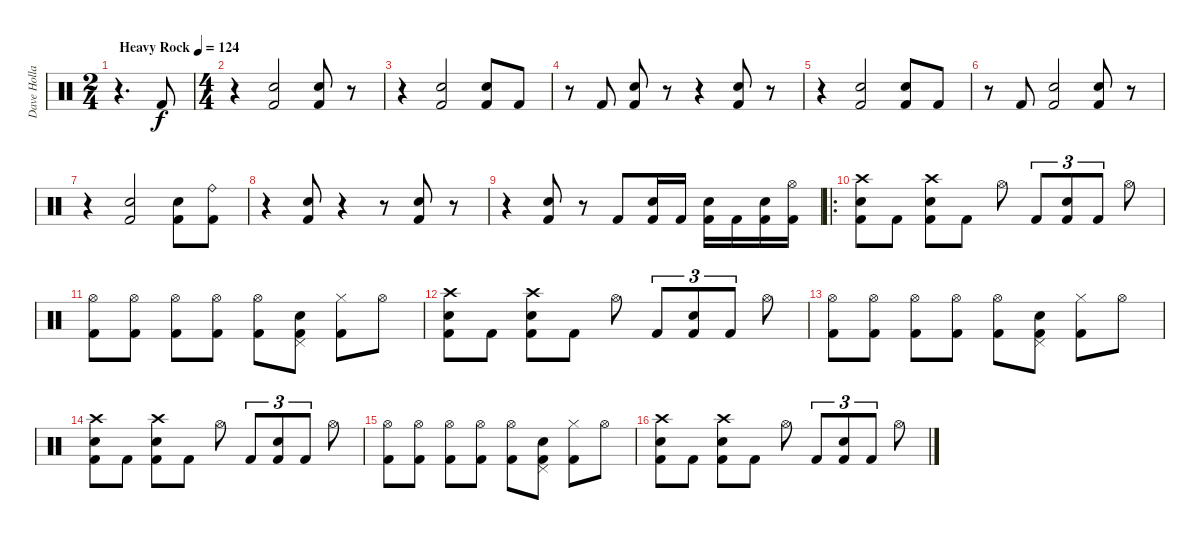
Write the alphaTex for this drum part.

\track ("Dave Holland" "Dave Holla") {instrument percussion}
\staff {score}
\articulation defaults
\ts (2 4)
\tempo (124 "Heavy Rock")
\clef neutral
\ks c
r.4{d dy f} "Kick (hit) 2".8 |
\ts (4 4)
r.4 ("Snare (hit) 2" "Kick (hit) 2").2 ("Snare (hit) 2" "Kick (hit) 2").8 r.8 |
r.4 ("Snare (hit) 2" "Kick (hit) 2").2 ("Snare (hit) 2" "Kick (hit) 2").8 "Kick (hit) 2".8 |
r.8 "Kick (hit) 2".8 ("Snare (hit) 2" "Kick (hit) 2").8 r.8 r.4 ("Snare (hit) 2" "Kick (hit) 2").8 r.8 |
r.4 ("Snare (hit) 2" "Kick (hit) 2").2 ("Snare (hit) 2" "Kick (hit) 2").8 "Kick (hit) 2".8 |
r.8 "Kick (hit) 2".8 ("Snare (hit) 2" "Kick (hit) 2").2 ("Snare (hit) 2" "Kick (hit) 2").8 r.8 |
r.4 ("Snare (hit) 2" "Kick (hit) 2").2 ("Snare (hit) 2" "Kick (hit) 2").8 ("Ride (bell)" "Kick (hit) 2").8 |
r.4 ("Snare (hit) 2" "Kick (hit) 2").8 r.4 r.8 ("Snare (hit) 2" "Kick (hit) 2").8 r.8 |
r.4 ("Snare (hit) 2" "Kick (hit) 2").8 r.8 "Kick (hit) 2".8 ("Snare (hit) 2" "Kick (hit) 2").16 "Kick (hit) 2".16 ("Snare (hit) 2" "Kick (hit) 2").16 "Kick (hit) 2".16 ("Snare (hit) 2" "Kick (hit) 2").16 ("Hi-Hat (open)" "Kick (hit) 2").16 |
\ro
("Crash high (hit)" "Snare (hit) 2" "Kick (hit) 2").8 "Kick (hit) 2".8 ("Crash high (hit)" "Snare (hit) 2" "Kick (hit) 2").8 "Kick (hit) 2".8 "Hi-Hat (open)".8 "Kick (hit) 2".8{tu (3 2)} ("Snare (hit) 2" "Kick (hit) 2").8{tu (3 2)} "Kick (hit) 2".8{tu (3 2)} "Hi-Hat (open)".8 |
("Hi-Hat (open)" "Kick (hit) 2").8 ("Hi-Hat (open)" "Kick (hit) 2").8 ("Hi-Hat (open)" "Kick (hit) 2").8 ("Hi-Hat (open)" "Kick (hit) 2").8 ("Hi-Hat (open)" "Kick (hit) 2").8 ("Pedal Hi-Hat (hit)" "Snare (hit) 2" "Kick (hit) 2").8 ("Hi-Hat (closed)" "Kick (hit) 2").8 "Hi-Hat (open)".8 |
("Crash high (hit)" "Snare (hit) 2" "Kick (hit) 2").8 "Kick (hit) 2".8 ("Crash high (hit)" "Snare (hit) 2" "Kick (hit) 2").8 "Kick (hit) 2".8 "Hi-Hat (open)".8 "Kick (hit) 2".8{tu (3 2)} ("Snare (hit) 2" "Kick (hit) 2").8{tu (3 2)} "Kick (hit) 2".8{tu (3 2)} "Hi-Hat (open)".8 |
("Hi-Hat (open)" "Kick (hit) 2").8 ("Hi-Hat (open)" "Kick (hit) 2").8 ("Hi-Hat (open)" "Kick (hit) 2").8 ("Hi-Hat (open)" "Kick (hit) 2").8 ("Hi-Hat (open)" "Kick (hit) 2").8 ("Pedal Hi-Hat (hit)" "Snare (hit) 2" "Kick (hit) 2").8 ("Hi-Hat (closed)" "Kick (hit) 2").8 "Hi-Hat (open)".8 |
("Crash high (hit)" "Snare (hit) 2" "Kick (hit) 2").8 "Kick (hit) 2".8 ("Crash high (hit)" "Snare (hit) 2" "Kick (hit) 2").8 "Kick (hit) 2".8 "Hi-Hat (open)".8 "Kick (hit) 2".8{tu (3 2)} ("Snare (hit) 2" "Kick (hit) 2").8{tu (3 2)} "Kick (hit) 2".8{tu (3 2)} "Hi-Hat (open)".8 |
("Hi-Hat (open)" "Kick (hit) 2").8 ("Hi-Hat (open)" "Kick (hit) 2").8 ("Hi-Hat (open)" "Kick (hit) 2").8 ("Hi-Hat (open)" "Kick (hit) 2").8 ("Hi-Hat (open)" "Kick (hit) 2").8 ("Pedal Hi-Hat (hit)" "Snare (hit) 2" "Kick (hit) 2").8 ("Hi-Hat (closed)" "Kick (hit) 2").8 "Hi-Hat (open)".8 |
("Crash high (hit)" "Snare (hit) 2" "Kick (hit) 2").8 "Kick (hit) 2".8 ("Crash high (hit)" "Snare (hit) 2" "Kick (hit) 2").8 "Kick (hit) 2".8 "Hi-Hat (open)".8 "Kick (hit) 2".8{tu (3 2)} ("Snare (hit) 2" "Kick (hit) 2").8{tu (3 2)} "Kick (hit) 2".8{tu (3 2)} "Hi-Hat (open)".8
